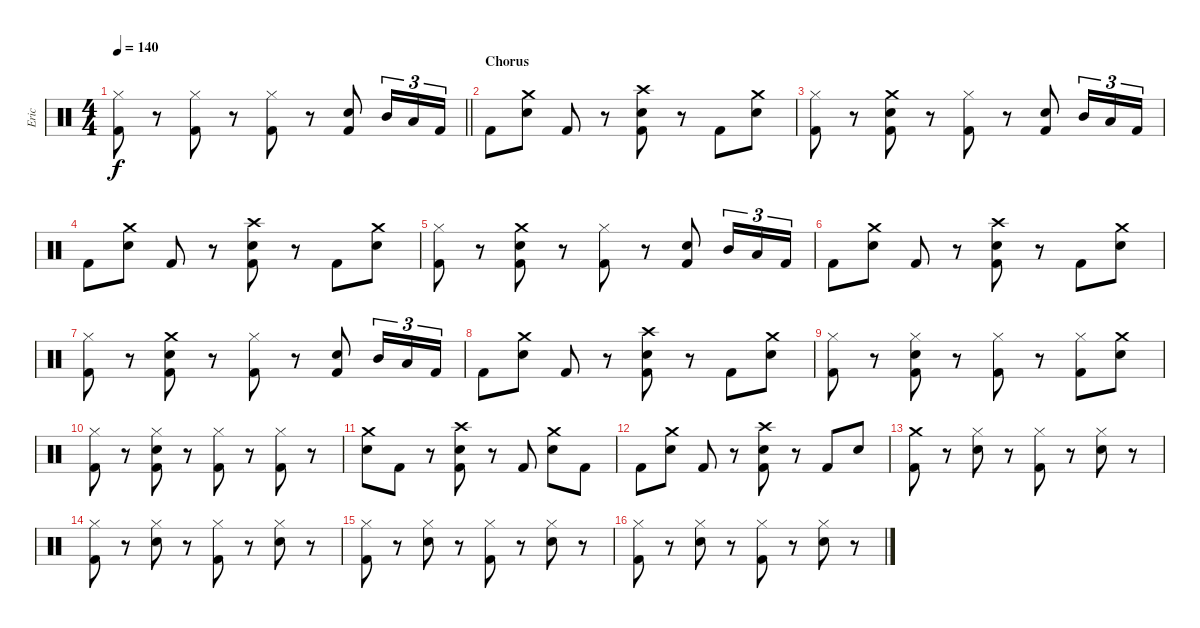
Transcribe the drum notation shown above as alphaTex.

\track ("Eric" "Eric") {instrument percussion}
\staff {score}
\articulation defaults
\ts (4 4)
\tempo 140
\clef neutral
\barLineRight lightlight
\ks c
("Hi-Hat (closed)" "Kick (hit) 2").8{dy f} r.8 ("Hi-Hat (closed)" "Kick (hit) 2").8 r.8 ("Hi-Hat (closed)" "Kick (hit) 2").8 r.8 ("Electric Snare (hit)" "Kick (hit) 2").8 "Mid Tom (hit)".16{tu (3 2)} "Low Tom (hit)".16{tu (3 2)} "Kick (hit) 2".16{tu (3 2)} |
\section ("" "Chorus")
"Kick (hit) 2".8 ("Crash medium (hit)" "Electric Snare (hit)").8 "Kick (hit) 2".8 r.8 ("Crash high (hit)" "Electric Snare (hit)" "Kick (hit) 2").8 r.8 "Kick (hit) 2".8 ("Crash medium (hit)" "Electric Snare (hit)").8 |
("Hi-Hat (closed)" "Kick (hit) 2").8 r.8 ("Crash medium (hit)" "Electric Snare (hit)" "Kick (hit) 2").8 r.8 ("Hi-Hat (closed)" "Kick (hit) 2").8 r.8 ("Electric Snare (hit)" "Kick (hit) 2").8 "Mid Tom (hit)".16{tu (3 2)} "Low Tom (hit)".16{tu (3 2)} "Kick (hit) 2".16{tu (3 2)} |
"Kick (hit) 2".8 ("Crash medium (hit)" "Electric Snare (hit)").8 "Kick (hit) 2".8 r.8 ("Crash high (hit)" "Electric Snare (hit)" "Kick (hit) 2").8 r.8 "Kick (hit) 2".8 ("Crash medium (hit)" "Electric Snare (hit)").8 |
("Hi-Hat (closed)" "Kick (hit) 2").8 r.8 ("Crash medium (hit)" "Electric Snare (hit)" "Kick (hit) 2").8 r.8 ("Hi-Hat (closed)" "Kick (hit) 2").8 r.8 ("Electric Snare (hit)" "Kick (hit) 2").8 "Mid Tom (hit)".16{tu (3 2)} "Low Tom (hit)".16{tu (3 2)} "Kick (hit) 2".16{tu (3 2)} |
"Kick (hit) 2".8 ("Crash medium (hit)" "Electric Snare (hit)").8 "Kick (hit) 2".8 r.8 ("Crash high (hit)" "Electric Snare (hit)" "Kick (hit) 2").8 r.8 "Kick (hit) 2".8 ("Crash medium (hit)" "Electric Snare (hit)").8 |
("Hi-Hat (closed)" "Kick (hit) 2").8 r.8 ("Crash medium (hit)" "Electric Snare (hit)" "Kick (hit) 2").8 r.8 ("Hi-Hat (closed)" "Kick (hit) 2").8 r.8 ("Electric Snare (hit)" "Kick (hit) 2").8 "Mid Tom (hit)".16{tu (3 2)} "Low Tom (hit)".16{tu (3 2)} "Kick (hit) 2".16{tu (3 2)} |
"Kick (hit) 2".8 ("Crash medium (hit)" "Electric Snare (hit)").8 "Kick (hit) 2".8 r.8 ("Crash high (hit)" "Electric Snare (hit)" "Kick (hit) 2").8 r.8 "Kick (hit) 2".8 ("Crash medium (hit)" "Electric Snare (hit)").8 |
("Hi-Hat (closed)" "Kick (hit) 2").8 r.8 ("Hi-Hat (closed)" "Electric Snare (hit)" "Kick (hit) 2").8 r.8 ("Hi-Hat (closed)" "Kick (hit) 2").8 r.8 ("Hi-Hat (closed)" "Kick (hit) 2").8 ("Crash medium (hit)" "Electric Snare (hit)").8 |
("Hi-Hat (closed)" "Kick (hit) 2").8 r.8 ("Hi-Hat (closed)" "Electric Snare (hit)" "Kick (hit) 2").8 r.8 ("Hi-Hat (closed)" "Kick (hit) 2").8 r.8 ("Hi-Hat (closed)" "Kick (hit) 2").8 r.8 |
("Crash medium (hit)" "Electric Snare (hit)").8 "Kick (hit) 2".8 r.8 ("Crash high (hit)" "Electric Snare (hit)" "Kick (hit) 2").8 r.8 "Kick (hit) 2".8 ("Crash medium (hit)" "Electric Snare (hit)").8 "Kick (hit) 2".8 |
"Kick (hit) 2".8 ("Crash medium (hit)" "Electric Snare (hit)").8 "Kick (hit) 2".8 r.8 ("Crash high (hit)" "Electric Snare (hit)" "Kick (hit) 2").8 r.8 "Kick (hit) 2".8 "Electric Snare (hit)".8 |
("Crash medium (hit)" "Kick (hit) 2").8 r.8 ("Hi-Hat (closed)" "Electric Snare (hit)").8 r.8 ("Hi-Hat (closed)" "Kick (hit) 2").8 r.8 ("Hi-Hat (closed)" "Electric Snare (hit)").8 r.8 |
("Hi-Hat (closed)" "Kick (hit) 2").8 r.8 ("Hi-Hat (closed)" "Electric Snare (hit)").8 r.8 ("Hi-Hat (closed)" "Kick (hit) 2").8 r.8 ("Hi-Hat (closed)" "Electric Snare (hit)").8 r.8 |
("Hi-Hat (closed)" "Kick (hit) 2").8 r.8 ("Hi-Hat (closed)" "Electric Snare (hit)").8 r.8 ("Hi-Hat (closed)" "Kick (hit) 2").8 r.8 ("Hi-Hat (closed)" "Electric Snare (hit)").8 r.8 |
("Hi-Hat (closed)" "Kick (hit) 2").8 r.8 ("Hi-Hat (closed)" "Electric Snare (hit)").8 r.8 ("Hi-Hat (closed)" "Kick (hit) 2").8 r.8 ("Hi-Hat (closed)" "Electric Snare (hit)").8 r.8
